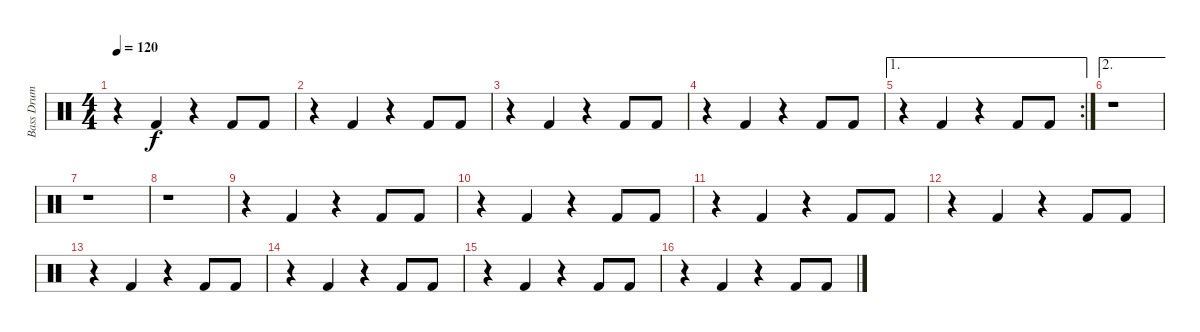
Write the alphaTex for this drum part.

\track ("Bass Drum" "Bass Drum") {instrument percussion}
\staff {score}
\articulation defaults
\ts (4 4)
\tempo 120
\clef neutral
\ks c
r.4{dy f} "Kick (hit) 2".4 r.4 "Kick (hit) 2".8 "Kick (hit) 2".8 |
r.4 "Kick (hit) 2".4 r.4 "Kick (hit) 2".8 "Kick (hit) 2".8 |
r.4 "Kick (hit) 2".4 r.4 "Kick (hit) 2".8 "Kick (hit) 2".8 |
r.4 "Kick (hit) 2".4 r.4 "Kick (hit) 2".8 "Kick (hit) 2".8 |
\ae 1
\rc 2
r.4 "Kick (hit) 2".4 r.4 "Kick (hit) 2".8 "Kick (hit) 2".8 |
\ae 2
r.1 |
r.1 |
r.1 |
r.4 "Kick (hit) 2".4 r.4 "Kick (hit) 2".8 "Kick (hit) 2".8 |
r.4 "Kick (hit) 2".4 r.4 "Kick (hit) 2".8 "Kick (hit) 2".8 |
r.4 "Kick (hit) 2".4 r.4 "Kick (hit) 2".8 "Kick (hit) 2".8 |
r.4 "Kick (hit) 2".4 r.4 "Kick (hit) 2".8 "Kick (hit) 2".8 |
r.4 "Kick (hit) 2".4 r.4 "Kick (hit) 2".8 "Kick (hit) 2".8 |
r.4 "Kick (hit) 2".4 r.4 "Kick (hit) 2".8 "Kick (hit) 2".8 |
r.4 "Kick (hit) 2".4 r.4 "Kick (hit) 2".8 "Kick (hit) 2".8 |
r.4 "Kick (hit) 2".4 r.4 "Kick (hit) 2".8 "Kick (hit) 2".8
